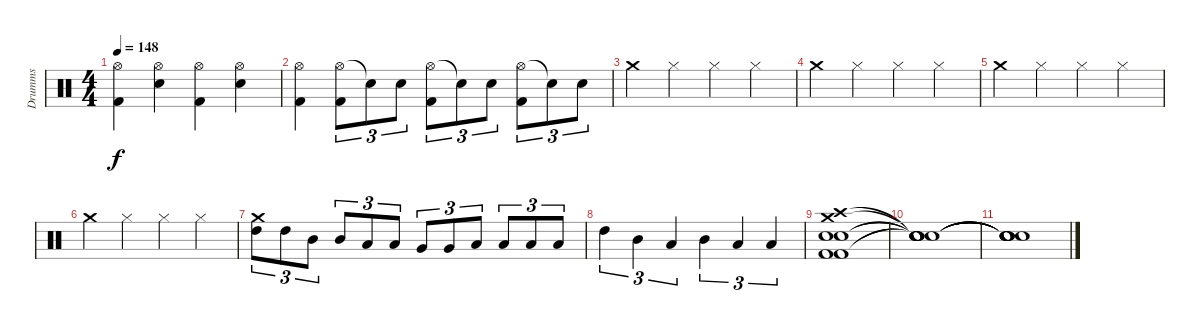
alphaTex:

\track ("Drumms" "Drumms") {instrument percussion}
\staff {score}
\articulation defaults
\ts (4 4)
\tempo 148
\clef neutral
\ks c
("Hi-Hat (open)" "Kick (hit) 2").4{dy f} ("Hi-Hat (open)" "Snare (hit) 2").4 ("Hi-Hat (open)" "Kick (hit) 2").4 ("Hi-Hat (open)" "Snare (hit) 2").4 |
("Hi-Hat (open)" "Kick (hit) 2").4 ("Hi-Hat (open)" "Kick (hit) 2").8{tu (3 2)} "Snare (hit)"{t}.8{tu (3 2)} "Snare (hit) 2".8{tu (3 2)} ("Hi-Hat (open)" "Kick (hit) 2").8{tu (3 2)} "Snare (hit)"{t}.8{tu (3 2)} "Snare (hit) 2".8{tu (3 2)} ("Hi-Hat (open)" "Kick (hit) 2").8{tu (3 2)} "Snare (hit) 2"{t}.8{tu (3 2)} "Snare (hit) 2".8{tu (3 2)} |
"Crash medium (hit)".4 "Hi-Hat (closed)".4 "Hi-Hat (closed)".4 "Hi-Hat (closed)".4 |
"Crash medium (hit)".4 "Hi-Hat (closed)".4 "Hi-Hat (closed)".4 "Hi-Hat (closed)".4 |
"Crash medium (hit)".4 "Hi-Hat (closed)".4 "Hi-Hat (closed)".4 "Hi-Hat (closed)".4 |
"Crash medium (hit)".4 "Hi-Hat (closed)".4 "Hi-Hat (closed)".4 "Hi-Hat (closed)".4 |
("Crash medium (hit)" "High Tom (hit)").8{tu (3 2)} "High Tom (hit)".8{tu (3 2)} "Mid Tom (hit)".8{tu (3 2)} "Mid Tom (hit)".8{tu (3 2)} "Low Tom (hit)".8{tu (3 2)} "Low Tom (hit)".8{tu (3 2)} "Very Low Tom (hit)".8{tu (3 2)} "Very Low Tom (hit)".8{tu (3 2)} "Low Floor Tom (hit)".8{tu (3 2)} "Low Floor Tom (hit)".8{tu (3 2)} "Low Floor Tom (hit)".8{tu (3 2)} "Low Floor Tom (hit)".8{tu (3 2)} |
"High Tom (hit)".4{tu (3 2)} "Mid Tom (hit)".4{tu (3 2)} "Low Tom (hit)".4{tu (3 2)} "Mid Tom (hit)".4{tu (3 2)} "Low Tom (hit)".4{tu (3 2)} "Low Floor Tom (hit)".4{tu (3 2)} |
("Kick (hit) 2" "Crash medium (hit)" "Crash high (hit)" "Snare (hit) 2" "Snare (hit) 2" "Kick (hit) 2").1 |
("Snare (hit)"{t} "Snare (hit)"{t} "Snare (hit)"{t} "Snare (hit)"{t} "Snare (hit)"{t} "Snare (hit)"{t}).1 |
("Snare (hit)"{t} "Snare (hit)"{t} "Snare (hit)"{t} "Snare (hit)"{t} "Snare (hit)"{t} "Snare (hit)"{t}).1
